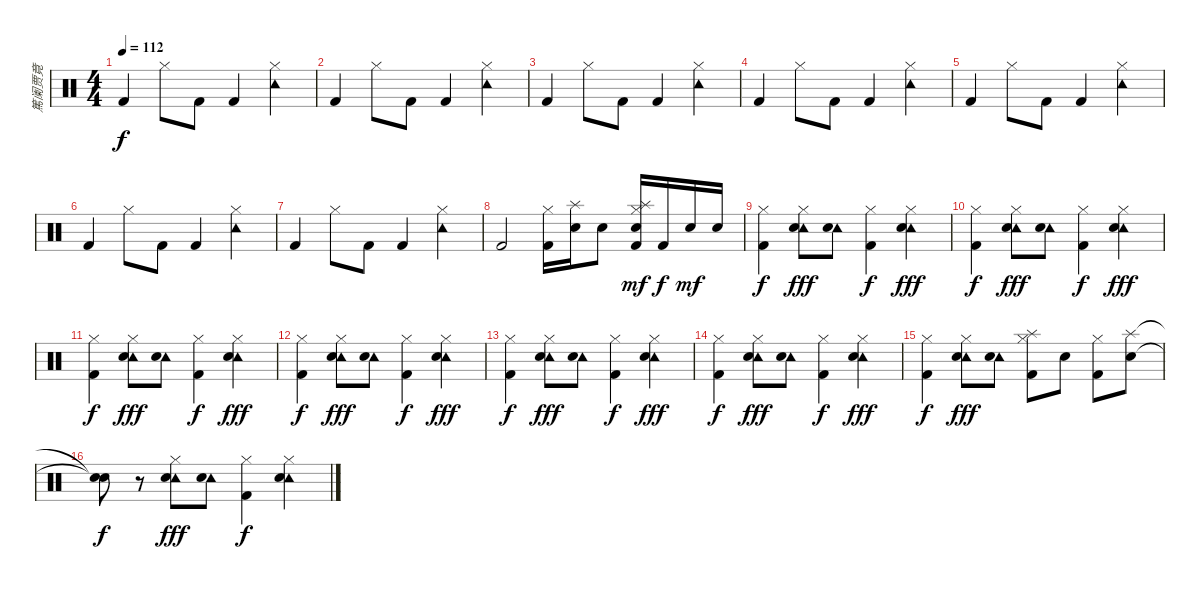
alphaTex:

\track ("篤阑贾竟" "篤阑贾竟") {instrument percussion}
\staff {score}
\articulation defaults
\ts (4 4)
\tempo 112
\clef neutral
\ks c "Kick (hit) 2".4{dy f} "Hi-Hat (closed)".8 "Kick (hit) 2".8 "Kick (hit) 2".4
("Hi-Hat (closed)" "Tambourine (hit)").4 |
"Kick (hit) 2".4 "Hi-Hat (closed)".8 "Kick (hit) 2".8 "Kick (hit) 2".4 ("Hi-Hat (closed)" "Tambourine (hit)").4 |
"Kick (hit) 2".4 "Hi-Hat (closed)".8 "Kick (hit) 2".8 "Kick (hit) 2".4 ("Hi-Hat (closed)" "Tambourine (hit)").4 |
"Kick (hit) 2".4 "Hi-Hat (closed)".8 "Kick (hit) 2".8 "Kick (hit) 2".4 ("Hi-Hat (closed)" "Tambourine (hit)").4 |
"Kick (hit) 2".4 "Hi-Hat (closed)".8 "Kick (hit) 2".8 "Kick (hit) 2".4 ("Hi-Hat (closed)" "Tambourine (hit)").4 |
"Kick (hit) 2".4 "Hi-Hat (closed)".8 "Kick (hit) 2".8 "Kick (hit) 2".4 ("Hi-Hat (closed)" "Tambourine (hit)").4 |
"Kick (hit) 2".4 "Hi-Hat (closed)".8 "Kick (hit) 2".8 "Kick (hit) 2".4 ("Hi-Hat (closed)" "Tambourine (hit)").4 |
"Kick (hit) 2".2 ("Hi-Hat (closed)" "Kick (hit) 2").16 ("Splash (hit)" "Electric Snare (hit)").16 "Electric Snare (hit)".8 ("Hi-Hat (closed)" "Splash (hit)" "Electric Snare (hit)" "Kick (hit) 2").16{dy mf} "Kick (hit) 2".16{dy f} "Electric Snare (hit)".16{dy mf} "Electric Snare (hit)".16 |
("Hi-Hat (closed)" "Kick (hit) 2").4{dy f} ("Hi-Hat (closed)" "Tambourine (hit)" "Electric Snare (hit)").8{dy fff} ("Tambourine (hit)" "Electric Snare (hit)").8 ("Hi-Hat (closed)" "Kick (hit) 2").4{dy f} ("Hi-Hat (closed)" "Tambourine (hit)" "Electric Snare (hit)").4{dy fff} |
("Hi-Hat (closed)" "Kick (hit) 2").4{dy f} ("Hi-Hat (closed)" "Tambourine (hit)" "Electric Snare (hit)").8{dy fff} ("Tambourine (hit)" "Electric Snare (hit)").8 ("Hi-Hat (closed)" "Kick (hit) 2").4{dy f} ("Hi-Hat (closed)" "Tambourine (hit)" "Electric Snare (hit)").4{dy fff} |
("Hi-Hat (closed)" "Kick (hit) 2").4{dy f} ("Hi-Hat (closed)" "Tambourine (hit)" "Electric Snare (hit)").8{dy fff} ("Tambourine (hit)" "Electric Snare (hit)").8 ("Hi-Hat (closed)" "Kick (hit) 2").4{dy f} ("Hi-Hat (closed)" "Tambourine (hit)" "Electric Snare (hit)").4{dy fff} |
("Hi-Hat (closed)" "Kick (hit) 2").4{dy f} ("Hi-Hat (closed)" "Tambourine (hit)" "Electric Snare (hit)").8{dy fff} ("Tambourine (hit)" "Electric Snare (hit)").8 ("Hi-Hat (closed)" "Kick (hit) 2").4{dy f} ("Hi-Hat (closed)" "Tambourine (hit)" "Electric Snare (hit)").4{dy fff} |
("Hi-Hat (closed)" "Kick (hit) 2").4{dy f} ("Hi-Hat (closed)" "Tambourine (hit)" "Electric Snare (hit)").8{dy fff} ("Tambourine (hit)" "Electric Snare (hit)").8 ("Hi-Hat (closed)" "Kick (hit) 2").4{dy f} ("Hi-Hat (closed)" "Tambourine (hit)" "Electric Snare (hit)").4{dy fff} |
("Hi-Hat (closed)" "Kick (hit) 2").4{dy f} ("Hi-Hat (closed)" "Tambourine (hit)" "Electric Snare (hit)").8{dy fff} ("Tambourine (hit)" "Electric Snare (hit)").8 ("Hi-Hat (closed)" "Kick (hit) 2").4{dy f} ("Hi-Hat (closed)" "Tambourine (hit)" "Electric Snare (hit)").4{dy fff} |
("Hi-Hat (closed)" "Kick (hit) 2").4{dy f} ("Hi-Hat (closed)" "Tambourine (hit)" "Electric Snare (hit)").8{dy fff} ("Tambourine (hit)" "Electric Snare (hit)").8 ("Hi-Hat (closed)" "Splash (hit)" "Kick (hit) 2").8 "Electric Snare (hit)".8 ("Hi-Hat (closed)" "Kick (hit) 2").8 ("Splash (hit)" "Electric Snare (hit)").8 |
("Snare (hit)"{t} "Snare (hit)"{t}).8{dy f} r.8 ("Hi-Hat (closed)" "Tambourine (hit)" "Electric Snare (hit)").8{dy fff} ("Tambourine (hit)" "Electric Snare (hit)").8 ("Hi-Hat (closed)" "Kick (hit) 2").4{dy f} ("Hi-Hat (closed)" "Tambourine (hit)" "Electric Snare (hit)").4
